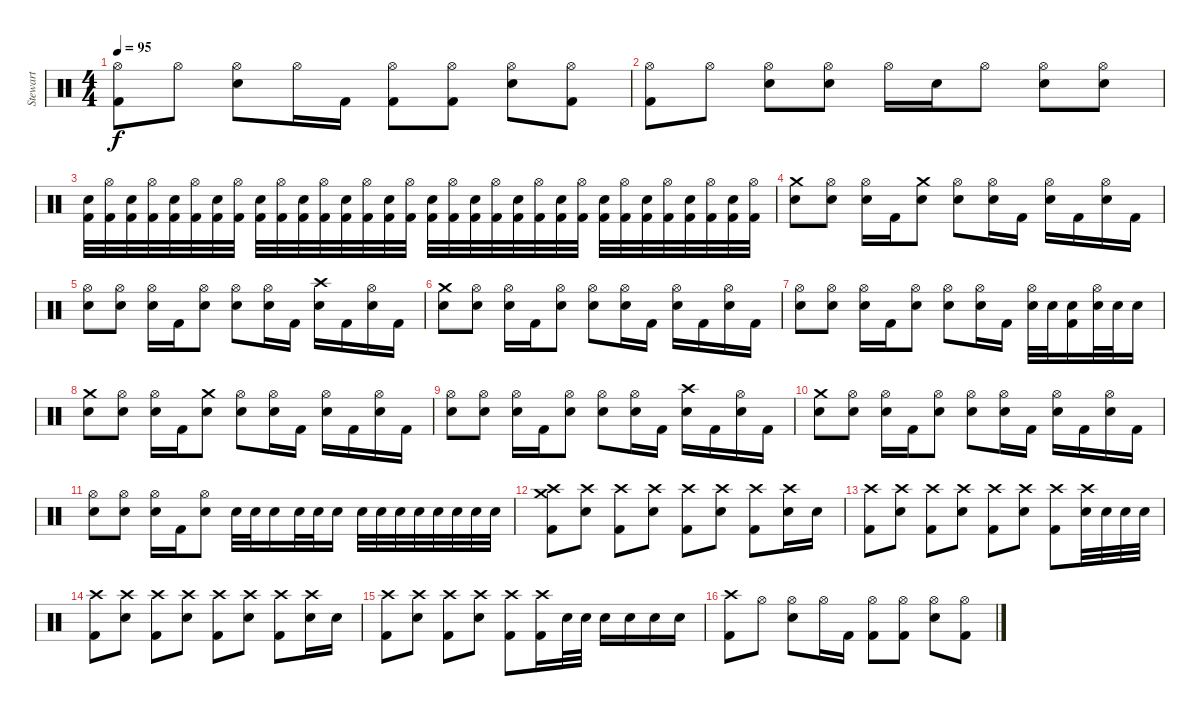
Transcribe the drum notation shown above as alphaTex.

\track ("Stewart" "Stewart") {instrument percussion}
\staff {score}
\articulation defaults
\ts (4 4)
\tempo 95
\clef neutral
\ks c
("Hi-Hat (open)" "Kick (hit) 2").8{dy f} "Hi-Hat (open)".8 ("Hi-Hat (open)" "Snare (hit) 2").8 "Hi-Hat (open)".16 "Kick (hit) 2".16 ("Hi-Hat (open)" "Kick (hit) 2").8 ("Hi-Hat (open)" "Kick (hit) 2").8 ("Hi-Hat (open)" "Snare (hit) 2").8 ("Hi-Hat (open)" "Kick (hit) 2").8 |
("Hi-Hat (open)" "Kick (hit) 2").8 "Hi-Hat (open)".8 ("Hi-Hat (open)" "Snare (hit) 2").8 ("Hi-Hat (open)" "Snare (hit) 2").8 "Hi-Hat (open)".16 "Snare (hit) 2".16 "Hi-Hat (open)".8 ("Hi-Hat (open)" "Snare (hit) 2").8 ("Hi-Hat (open)" "Snare (hit) 2").8 |
("Snare (hit) 2" "Kick (hit) 2").32 ("Hi-Hat (open)" "Kick (hit) 2").32 ("Snare (hit) 2" "Kick (hit) 2").32 ("Hi-Hat (open)" "Kick (hit) 2").32 ("Snare (hit) 2" "Kick (hit) 2").32 ("Hi-Hat (open)" "Kick (hit) 2").32 ("Snare (hit) 2" "Kick (hit) 2").32 ("Hi-Hat (open)" "Kick (hit) 2").32 ("Snare (hit) 2" "Kick (hit) 2").32 ("Hi-Hat (open)" "Kick (hit) 2").32 ("Snare (hit) 2" "Kick (hit) 2").32 ("Hi-Hat (open)" "Kick (hit) 2").32 ("Snare (hit) 2" "Kick (hit) 2").32 ("Hi-Hat (open)" "Kick (hit) 2").32 ("Snare (hit) 2" "Kick (hit) 2").32 ("Hi-Hat (open)" "Kick (hit) 2").32 ("Snare (hit) 2" "Kick (hit) 2").32 ("Hi-Hat (open)" "Kick (hit) 2").32 ("Snare (hit) 2" "Kick (hit) 2").32 ("Hi-Hat (open)" "Kick (hit) 2").32 ("Snare (hit) 2" "Kick (hit) 2").32 ("Hi-Hat (open)" "Kick (hit) 2").32 ("Snare (hit) 2" "Kick (hit) 2").32 ("Hi-Hat (open)" "Kick (hit) 2").32 ("Snare (hit) 2" "Kick (hit) 2").32 ("Hi-Hat (open)" "Kick (hit) 2").32 ("Snare (hit) 2" "Kick (hit) 2").32 ("Hi-Hat (open)" "Kick (hit) 2").32 ("Snare (hit) 2" "Kick (hit) 2").32 ("Hi-Hat (open)" "Kick (hit) 2").32 ("Snare (hit) 2" "Kick (hit) 2").32 ("Hi-Hat (open)" "Kick (hit) 2").32 |
("Crash medium (hit)" "Snare (hit) 2").8 ("Hi-Hat (open)" "Snare (hit) 2").8 ("Hi-Hat (open)" "Snare (hit) 2").16 "Kick (hit) 2".16 ("Crash medium (hit)" "Snare (hit) 2").8 ("Hi-Hat (open)" "Snare (hit) 2").8 ("Hi-Hat (open)" "Snare (hit) 2").16 "Kick (hit) 2".16 ("Hi-Hat (open)" "Snare (hit) 2").16 "Kick (hit) 2".16 ("Hi-Hat (open)" "Snare (hit) 2").16 "Kick (hit) 2".16 |
("Hi-Hat (open)" "Snare (hit) 2").8 ("Hi-Hat (open)" "Snare (hit) 2").8 ("Hi-Hat (open)" "Snare (hit) 2").16 "Kick (hit) 2".16 ("Hi-Hat (open)" "Snare (hit) 2").8 ("Hi-Hat (open)" "Snare (hit) 2").8 ("Hi-Hat (open)" "Snare (hit) 2").16 "Kick (hit) 2".16 ("Crash high (hit)" "Snare (hit) 2").16 "Kick (hit) 2".16 ("Hi-Hat (open)" "Snare (hit) 2").16 "Kick (hit) 2".16 |
("Crash medium (hit)" "Snare (hit) 2").8 ("Hi-Hat (open)" "Snare (hit) 2").8 ("Hi-Hat (open)" "Snare (hit) 2").16 "Kick (hit) 2".16 ("Hi-Hat (open)" "Snare (hit) 2").8 ("Hi-Hat (open)" "Snare (hit) 2").8 ("Hi-Hat (open)" "Snare (hit) 2").16 "Kick (hit) 2".16 ("Hi-Hat (open)" "Snare (hit) 2").16 "Kick (hit) 2".16 ("Hi-Hat (open)" "Snare (hit) 2").16 "Kick (hit) 2".16 |
("Hi-Hat (open)" "Snare (hit) 2").8 ("Hi-Hat (open)" "Snare (hit) 2").8 ("Hi-Hat (open)" "Snare (hit) 2").16 "Kick (hit) 2".16 ("Hi-Hat (open)" "Snare (hit) 2").8 ("Hi-Hat (open)" "Snare (hit) 2").8 ("Hi-Hat (open)" "Snare (hit) 2").16 "Kick (hit) 2".16 ("Hi-Hat (open)" "Snare (hit) 2").32 "Snare (hit) 2".32 ("Snare (hit) 2" "Kick (hit) 2").16 ("Hi-Hat (open)" "Snare (hit) 2").32 "Snare (hit) 2".32 "Snare (hit) 2".16 |
("Crash medium (hit)" "Snare (hit) 2").8 ("Hi-Hat (open)" "Snare (hit) 2").8 ("Hi-Hat (open)" "Snare (hit) 2").16 "Kick (hit) 2".16 ("Crash medium (hit)" "Snare (hit) 2").8 ("Hi-Hat (open)" "Snare (hit) 2").8 ("Hi-Hat (open)" "Snare (hit) 2").16 "Kick (hit) 2".16 ("Hi-Hat (open)" "Snare (hit) 2").16 "Kick (hit) 2".16 ("Hi-Hat (open)" "Snare (hit) 2").16 "Kick (hit) 2".16 |
("Hi-Hat (open)" "Snare (hit) 2").8 ("Hi-Hat (open)" "Snare (hit) 2").8 ("Hi-Hat (open)" "Snare (hit) 2").16 "Kick (hit) 2".16 ("Hi-Hat (open)" "Snare (hit) 2").8 ("Hi-Hat (open)" "Snare (hit) 2").8 ("Hi-Hat (open)" "Snare (hit) 2").16 "Kick (hit) 2".16 ("Crash high (hit)" "Snare (hit) 2").16 "Kick (hit) 2".16 ("Hi-Hat (open)" "Snare (hit) 2").16 "Kick (hit) 2".16 |
("Crash medium (hit)" "Snare (hit) 2").8 ("Hi-Hat (open)" "Snare (hit) 2").8 ("Hi-Hat (open)" "Snare (hit) 2").16 "Kick (hit) 2".16 ("Hi-Hat (open)" "Snare (hit) 2").8 ("Hi-Hat (open)" "Snare (hit) 2").8 ("Hi-Hat (open)" "Snare (hit) 2").16 "Kick (hit) 2".16 ("Hi-Hat (open)" "Snare (hit) 2").16 "Kick (hit) 2".16 ("Hi-Hat (open)" "Snare (hit) 2").16 "Kick (hit) 2".16 |
("Hi-Hat (open)" "Snare (hit) 2").8 ("Hi-Hat (open)" "Snare (hit) 2").8 ("Hi-Hat (open)" "Snare (hit) 2").16 "Kick (hit) 2".16 ("Hi-Hat (open)" "Snare (hit) 2").8 "Snare (hit) 2".32 "Snare (hit) 2".32 "Snare (hit) 2".16 "Snare (hit) 2".32 "Snare (hit) 2".32 "Snare (hit) 2".16 "Snare (hit) 2".32 "Snare (hit) 2".32 "Snare (hit) 2".32 "Snare (hit) 2".32 "Snare (hit) 2".32 "Snare (hit) 2".32 "Snare (hit) 2".32 "Snare (hit) 2".32 |
("Crash high (hit)" "Kick (hit) 2" "Crash medium (hit)").8 ("Crash high (hit)" "Snare (hit) 2").8 ("Crash high (hit)" "Kick (hit) 2").8 ("Crash high (hit)" "Snare (hit) 2").8 ("Crash high (hit)" "Kick (hit) 2").8 ("Crash high (hit)" "Snare (hit) 2").8 ("Crash high (hit)" "Kick (hit) 2").8 ("Crash high (hit)" "Snare (hit) 2").16 "Snare (hit) 2".16 |
("Crash high (hit)" "Kick (hit) 2").8 ("Crash high (hit)" "Snare (hit) 2").8 ("Crash high (hit)" "Kick (hit) 2").8 ("Crash high (hit)" "Snare (hit) 2").8 ("Crash high (hit)" "Kick (hit) 2").8 ("Crash high (hit)" "Snare (hit) 2").8 ("Crash high (hit)" "Kick (hit) 2").8 ("Crash high (hit)" "Snare (hit) 2").32 "Snare (hit) 2".32 "Snare (hit) 2".32 "Snare (hit) 2".32 |
("Crash high (hit)" "Kick (hit) 2").8 ("Crash high (hit)" "Snare (hit) 2").8 ("Crash high (hit)" "Kick (hit) 2").8 ("Crash high (hit)" "Snare (hit) 2").8 ("Crash high (hit)" "Kick (hit) 2").8 ("Crash high (hit)" "Snare (hit) 2").8 ("Crash high (hit)" "Kick (hit) 2").8 ("Crash high (hit)" "Snare (hit) 2").16 "Snare (hit) 2".16 |
("Crash high (hit)" "Kick (hit) 2").8 ("Crash high (hit)" "Snare (hit) 2").8 ("Crash high (hit)" "Kick (hit) 2").8 ("Crash high (hit)" "Snare (hit) 2").8 ("Crash high (hit)" "Kick (hit) 2").8 ("Crash high (hit)" "Kick (hit) 2").16 "Snare (hit) 2".32 "Snare (hit) 2".32 "Snare (hit) 2".16 "Snare (hit) 2".16 "Snare (hit) 2".16 "Snare (hit) 2".16 |
("Crash high (hit)" "Kick (hit) 2").8 "Hi-Hat (open)".8 ("Hi-Hat (open)" "Snare (hit) 2").8 "Hi-Hat (open)".16 "Kick (hit) 2".16 ("Hi-Hat (open)" "Kick (hit) 2").8 ("Hi-Hat (open)" "Kick (hit) 2").8 ("Hi-Hat (open)" "Snare (hit) 2").8 ("Hi-Hat (open)" "Kick (hit) 2").8
